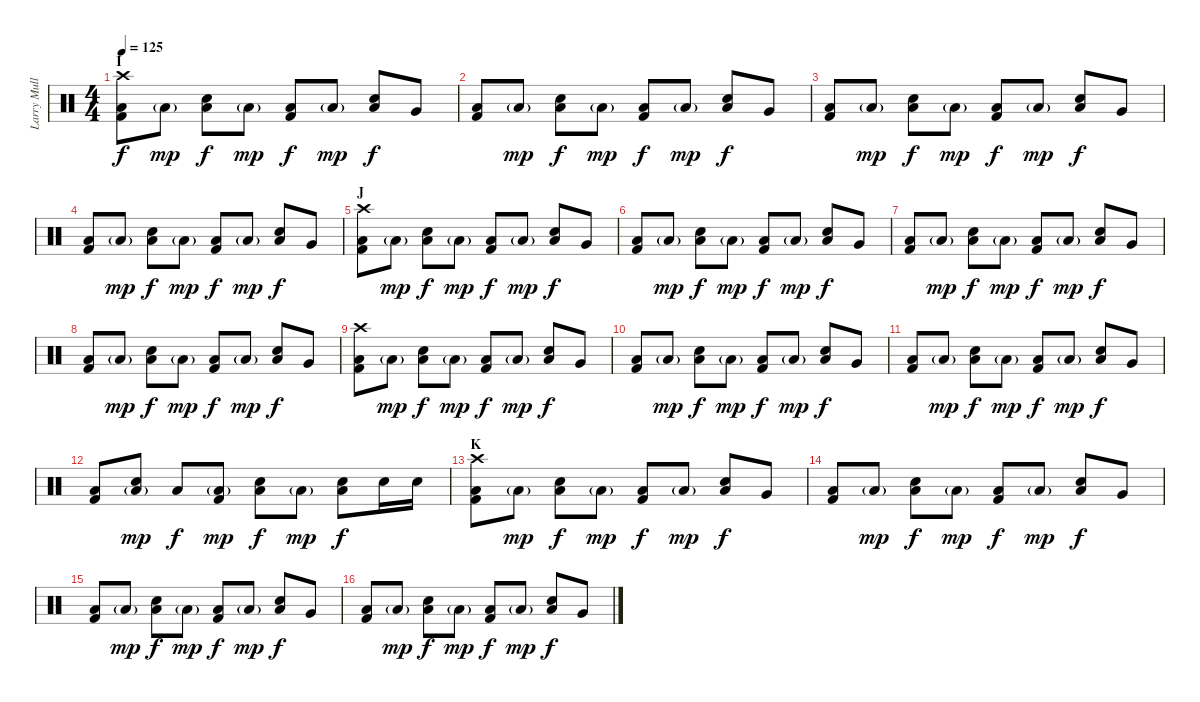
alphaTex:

\track ("Larry Mullen Jr" "Larry Mull") {instrument percussion}
\staff {score}
\articulation defaults
\ts (4 4)
\section ("" "I")
\tempo 125
\clef neutral
\ks c
("Crash high (hit)" "Kick (hit) 2" "Low Floor Tom (hit)").8{dy f} "Low Floor Tom (hit)"{g}.8{dy mp} ("Snare (hit) 2" "Low Floor Tom (hit)").8{dy f} "Low Floor Tom (hit)"{g}.8{dy mp} ("Kick (hit) 2" "Low Floor Tom (hit)").8{dy f} "Low Floor Tom (hit)"{g}.8{dy mp} ("Snare (hit) 2" "Low Floor Tom (hit)").8{dy f} "Very Low Tom (hit)".8 |
("Kick (hit) 2" "Low Floor Tom (hit)").8 "Low Floor Tom (hit)"{g}.8{dy mp} ("Snare (hit) 2" "Low Floor Tom (hit)").8{dy f} "Low Floor Tom (hit)"{g}.8{dy mp} ("Kick (hit) 2" "Low Floor Tom (hit)").8{dy f} "Low Floor Tom (hit)"{g}.8{dy mp} ("Snare (hit) 2" "Low Floor Tom (hit)").8{dy f} "Very Low Tom (hit)".8 |
("Kick (hit) 2" "Low Floor Tom (hit)").8 "Low Floor Tom (hit)"{g}.8{dy mp} ("Snare (hit) 2" "Low Floor Tom (hit)").8{dy f} "Low Floor Tom (hit)"{g}.8{dy mp} ("Kick (hit) 2" "Low Floor Tom (hit)").8{dy f} "Low Floor Tom (hit)"{g}.8{dy mp} ("Snare (hit) 2" "Low Floor Tom (hit)").8{dy f} "Very Low Tom (hit)".8 |
("Kick (hit) 2" "Low Floor Tom (hit)").8 "Low Floor Tom (hit)"{g}.8{dy mp} ("Snare (hit) 2" "Low Floor Tom (hit)").8{dy f} "Low Floor Tom (hit)"{g}.8{dy mp} ("Kick (hit) 2" "Low Floor Tom (hit)").8{dy f} "Low Floor Tom (hit)"{g}.8{dy mp} ("Snare (hit) 2" "Low Floor Tom (hit)").8{dy f} "Very Low Tom (hit)".8 |
\section ("" "J")
("Crash high (hit)" "Kick (hit) 2" "Low Floor Tom (hit)").8 "Low Floor Tom (hit)"{g}.8{dy mp} ("Snare (hit) 2" "Low Floor Tom (hit)").8{dy f} "Low Floor Tom (hit)"{g}.8{dy mp} ("Kick (hit) 2" "Low Floor Tom (hit)").8{dy f} "Low Floor Tom (hit)"{g}.8{dy mp} ("Snare (hit) 2" "Low Floor Tom (hit)").8{dy f} "Very Low Tom (hit)".8 |
("Kick (hit) 2" "Low Floor Tom (hit)").8 "Low Floor Tom (hit)"{g}.8{dy mp} ("Snare (hit) 2" "Low Floor Tom (hit)").8{dy f} "Low Floor Tom (hit)"{g}.8{dy mp} ("Kick (hit) 2" "Low Floor Tom (hit)").8{dy f} "Low Floor Tom (hit)"{g}.8{dy mp} ("Snare (hit) 2" "Low Floor Tom (hit)").8{dy f} "Very Low Tom (hit)".8 |
("Kick (hit) 2" "Low Floor Tom (hit)").8 "Low Floor Tom (hit)"{g}.8{dy mp} ("Snare (hit) 2" "Low Floor Tom (hit)").8{dy f} "Low Floor Tom (hit)"{g}.8{dy mp} ("Kick (hit) 2" "Low Floor Tom (hit)").8{dy f} "Low Floor Tom (hit)"{g}.8{dy mp} ("Snare (hit) 2" "Low Floor Tom (hit)").8{dy f} "Very Low Tom (hit)".8 |
("Kick (hit) 2" "Low Floor Tom (hit)").8 "Low Floor Tom (hit)"{g}.8{dy mp} ("Snare (hit) 2" "Low Floor Tom (hit)").8{dy f} "Low Floor Tom (hit)"{g}.8{dy mp} ("Kick (hit) 2" "Low Floor Tom (hit)").8{dy f} "Low Floor Tom (hit)"{g}.8{dy mp} ("Snare (hit) 2" "Low Floor Tom (hit)").8{dy f} "Very Low Tom (hit)".8 |
("Crash high (hit)" "Kick (hit) 2" "Low Floor Tom (hit)").8 "Low Floor Tom (hit)"{g}.8{dy mp} ("Snare (hit) 2" "Low Floor Tom (hit)").8{dy f} "Low Floor Tom (hit)"{g}.8{dy mp} ("Kick (hit) 2" "Low Floor Tom (hit)").8{dy f} "Low Floor Tom (hit)"{g}.8{dy mp} ("Snare (hit) 2" "Low Floor Tom (hit)").8{dy f} "Very Low Tom (hit)".8 |
("Kick (hit) 2" "Low Floor Tom (hit)").8 "Low Floor Tom (hit)"{g}.8{dy mp} ("Snare (hit) 2" "Low Floor Tom (hit)").8{dy f} "Low Floor Tom (hit)"{g}.8{dy mp} ("Kick (hit) 2" "Low Floor Tom (hit)").8{dy f} "Low Floor Tom (hit)"{g}.8{dy mp} ("Snare (hit) 2" "Low Floor Tom (hit)").8{dy f} "Very Low Tom (hit)".8 |
("Kick (hit) 2" "Low Floor Tom (hit)").8 "Low Floor Tom (hit)"{g}.8{dy mp} ("Snare (hit) 2" "Low Floor Tom (hit)").8{dy f} "Low Floor Tom (hit)"{g}.8{dy mp} ("Kick (hit) 2" "Low Floor Tom (hit)").8{dy f} "Low Floor Tom (hit)"{g}.8{dy mp} ("Snare (hit) 2" "Low Floor Tom (hit)").8{dy f} "Very Low Tom (hit)".8 |
("Kick (hit) 2" "Low Floor Tom (hit)").8 ("Snare (hit) 2" "Low Floor Tom (hit)"{g}).8{dy mp} "Low Floor Tom (hit)".8{dy f} ("Kick (hit) 2" "Low Floor Tom (hit)"{g}).8{dy mp} ("Snare (hit) 2" "Low Floor Tom (hit)").8{dy f} "Low Floor Tom (hit)"{g}.8{dy mp} ("Snare (hit) 2" "Low Floor Tom (hit)").8{dy f} "Snare (hit) 2".16 "Snare (hit) 2".16 |
\section ("" "K")
("Crash high (hit)" "Kick (hit) 2" "Low Floor Tom (hit)").8 "Low Floor Tom (hit)"{g}.8{dy mp} ("Snare (hit) 2" "Low Floor Tom (hit)").8{dy f} "Low Floor Tom (hit)"{g}.8{dy mp} ("Kick (hit) 2" "Low Floor Tom (hit)").8{dy f} "Low Floor Tom (hit)"{g}.8{dy mp} ("Snare (hit) 2" "Low Floor Tom (hit)").8{dy f} "Very Low Tom (hit)".8 |
("Kick (hit) 2" "Low Floor Tom (hit)").8 "Low Floor Tom (hit)"{g}.8{dy mp} ("Snare (hit) 2" "Low Floor Tom (hit)").8{dy f} "Low Floor Tom (hit)"{g}.8{dy mp} ("Kick (hit) 2" "Low Floor Tom (hit)").8{dy f} "Low Floor Tom (hit)"{g}.8{dy mp} ("Snare (hit) 2" "Low Floor Tom (hit)").8{dy f} "Very Low Tom (hit)".8 |
("Kick (hit) 2" "Low Floor Tom (hit)").8 "Low Floor Tom (hit)"{g}.8{dy mp} ("Snare (hit) 2" "Low Floor Tom (hit)").8{dy f} "Low Floor Tom (hit)"{g}.8{dy mp} ("Kick (hit) 2" "Low Floor Tom (hit)").8{dy f} "Low Floor Tom (hit)"{g}.8{dy mp} ("Snare (hit) 2" "Low Floor Tom (hit)").8{dy f} "Very Low Tom (hit)".8 |
("Kick (hit) 2" "Low Floor Tom (hit)").8 "Low Floor Tom (hit)"{g}.8{dy mp} ("Snare (hit) 2" "Low Floor Tom (hit)").8{dy f} "Low Floor Tom (hit)"{g}.8{dy mp} ("Kick (hit) 2" "Low Floor Tom (hit)").8{dy f} "Low Floor Tom (hit)"{g}.8{dy mp} ("Snare (hit) 2" "Low Floor Tom (hit)").8{dy f} "Very Low Tom (hit)".8
